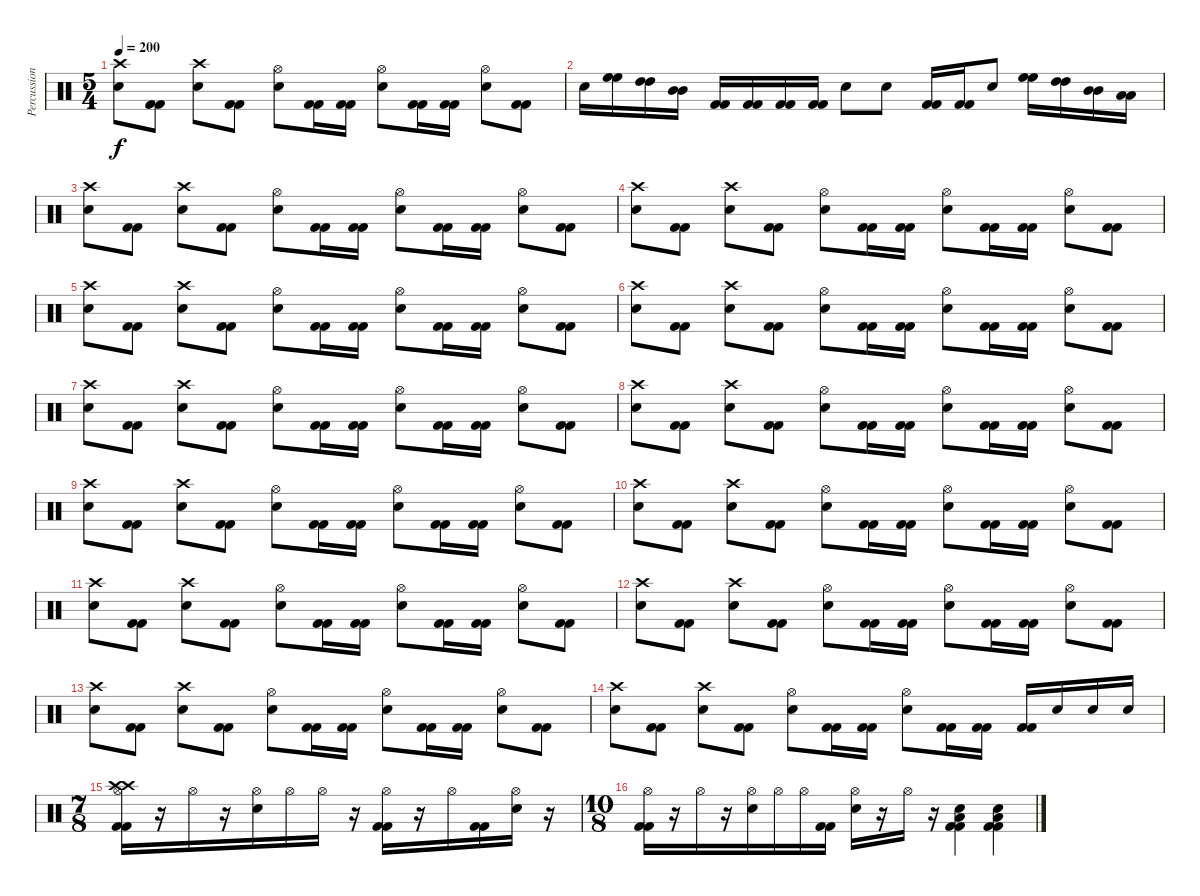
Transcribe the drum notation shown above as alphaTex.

\track ("Percussions" "Percussion") {instrument percussion}
\staff {score}
\articulation defaults
\ts (5 4)
\tempo 200
\clef neutral
\ks c
("Electric Snare (hit)" "Crash high (hit)").8{dy f} ("Kick (hit) 2" "Kick (hit) 2").8 ("Electric Snare (hit)" "Crash high (hit)").8 ("Kick (hit) 2" "Kick (hit) 2").8 ("Electric Snare (hit)" "Hi-Hat (open)").8 ("Kick (hit) 2" "Kick (hit) 2").16 ("Kick (hit) 2" "Kick (hit) 2").16 ("Electric Snare (hit)" "Hi-Hat (open)").8 ("Kick (hit) 2" "Kick (hit) 2").16 ("Kick (hit) 2" "Kick (hit) 2").16 ("Electric Snare (hit)" "Hi-Hat (open)").8 ("Kick (hit) 2" "Kick (hit) 2").8 |
"Electric Snare (hit)".16 ("High Floor Tom (hit)" "High Floor Tom (hit)").16 ("High Tom (hit)" "High Tom (hit)").16 ("Mid Tom (hit)" "Mid Tom (hit)").16 ("Kick (hit) 2" "Kick (hit) 2").16 ("Kick (hit) 2" "Kick (hit) 2").16 ("Kick (hit) 2" "Kick (hit) 2").16 ("Kick (hit) 2" "Kick (hit) 2").16 "Electric Snare (hit)".8 "Electric Snare (hit)".8 ("Kick (hit) 2" "Kick (hit) 2").16 ("Kick (hit) 2" "Kick (hit) 2").16 "Electric Snare (hit)".8 ("High Floor Tom (hit)" "High Floor Tom (hit)").16 ("High Tom (hit)" "High Tom (hit)").16 ("Mid Tom (hit)" "Mid Tom (hit)").16 ("Low Tom (hit)" "Low Tom (hit)").16 |
("Electric Snare (hit)" "Crash high (hit)").8 ("Kick (hit) 2" "Kick (hit) 2").8 ("Electric Snare (hit)" "Crash high (hit)").8 ("Kick (hit) 2" "Kick (hit) 2").8 ("Electric Snare (hit)" "Hi-Hat (open)").8 ("Kick (hit) 2" "Kick (hit) 2").16 ("Kick (hit) 2" "Kick (hit) 2").16 ("Electric Snare (hit)" "Hi-Hat (open)").8 ("Kick (hit) 2" "Kick (hit) 2").16 ("Kick (hit) 2" "Kick (hit) 2").16 ("Electric Snare (hit)" "Hi-Hat (open)").8 ("Kick (hit) 2" "Kick (hit) 2").8 |
("Electric Snare (hit)" "Crash high (hit)").8 ("Kick (hit) 2" "Kick (hit) 2").8 ("Electric Snare (hit)" "Crash high (hit)").8 ("Kick (hit) 2" "Kick (hit) 2").8 ("Electric Snare (hit)" "Hi-Hat (open)").8 ("Kick (hit) 2" "Kick (hit) 2").16 ("Kick (hit) 2" "Kick (hit) 2").16 ("Electric Snare (hit)" "Hi-Hat (open)").8 ("Kick (hit) 2" "Kick (hit) 2").16 ("Kick (hit) 2" "Kick (hit) 2").16 ("Electric Snare (hit)" "Hi-Hat (open)").8 ("Kick (hit) 2" "Kick (hit) 2").8 |
("Electric Snare (hit)" "Crash high (hit)").8 ("Kick (hit) 2" "Kick (hit) 2").8 ("Electric Snare (hit)" "Crash high (hit)").8 ("Kick (hit) 2" "Kick (hit) 2").8 ("Electric Snare (hit)" "Hi-Hat (open)").8 ("Kick (hit) 2" "Kick (hit) 2").16 ("Kick (hit) 2" "Kick (hit) 2").16 ("Electric Snare (hit)" "Hi-Hat (open)").8 ("Kick (hit) 2" "Kick (hit) 2").16 ("Kick (hit) 2" "Kick (hit) 2").16 ("Electric Snare (hit)" "Hi-Hat (open)").8 ("Kick (hit) 2" "Kick (hit) 2").8 |
("Electric Snare (hit)" "Crash high (hit)").8 ("Kick (hit) 2" "Kick (hit) 2").8 ("Electric Snare (hit)" "Crash high (hit)").8 ("Kick (hit) 2" "Kick (hit) 2").8 ("Electric Snare (hit)" "Hi-Hat (open)").8 ("Kick (hit) 2" "Kick (hit) 2").16 ("Kick (hit) 2" "Kick (hit) 2").16 ("Electric Snare (hit)" "Hi-Hat (open)").8 ("Kick (hit) 2" "Kick (hit) 2").16 ("Kick (hit) 2" "Kick (hit) 2").16 ("Electric Snare (hit)" "Hi-Hat (open)").8 ("Kick (hit) 2" "Kick (hit) 2").8 |
("Electric Snare (hit)" "Crash high (hit)").8 ("Kick (hit) 2" "Kick (hit) 2").8 ("Electric Snare (hit)" "Crash high (hit)").8 ("Kick (hit) 2" "Kick (hit) 2").8 ("Electric Snare (hit)" "Hi-Hat (open)").8 ("Kick (hit) 2" "Kick (hit) 2").16 ("Kick (hit) 2" "Kick (hit) 2").16 ("Electric Snare (hit)" "Hi-Hat (open)").8 ("Kick (hit) 2" "Kick (hit) 2").16 ("Kick (hit) 2" "Kick (hit) 2").16 ("Electric Snare (hit)" "Hi-Hat (open)").8 ("Kick (hit) 2" "Kick (hit) 2").8 |
("Electric Snare (hit)" "Crash high (hit)").8 ("Kick (hit) 2" "Kick (hit) 2").8 ("Electric Snare (hit)" "Crash high (hit)").8 ("Kick (hit) 2" "Kick (hit) 2").8 ("Electric Snare (hit)" "Hi-Hat (open)").8 ("Kick (hit) 2" "Kick (hit) 2").16 ("Kick (hit) 2" "Kick (hit) 2").16 ("Electric Snare (hit)" "Hi-Hat (open)").8 ("Kick (hit) 2" "Kick (hit) 2").16 ("Kick (hit) 2" "Kick (hit) 2").16 ("Electric Snare (hit)" "Hi-Hat (open)").8 ("Kick (hit) 2" "Kick (hit) 2").8 |
("Electric Snare (hit)" "Crash high (hit)").8 ("Kick (hit) 2" "Kick (hit) 2").8 ("Electric Snare (hit)" "Crash high (hit)").8 ("Kick (hit) 2" "Kick (hit) 2").8 ("Electric Snare (hit)" "Hi-Hat (open)").8 ("Kick (hit) 2" "Kick (hit) 2").16 ("Kick (hit) 2" "Kick (hit) 2").16 ("Electric Snare (hit)" "Hi-Hat (open)").8 ("Kick (hit) 2" "Kick (hit) 2").16 ("Kick (hit) 2" "Kick (hit) 2").16 ("Electric Snare (hit)" "Hi-Hat (open)").8 ("Kick (hit) 2" "Kick (hit) 2").8 |
("Electric Snare (hit)" "Crash high (hit)").8 ("Kick (hit) 2" "Kick (hit) 2").8 ("Electric Snare (hit)" "Crash high (hit)").8 ("Kick (hit) 2" "Kick (hit) 2").8 ("Electric Snare (hit)" "Hi-Hat (open)").8 ("Kick (hit) 2" "Kick (hit) 2").16 ("Kick (hit) 2" "Kick (hit) 2").16 ("Electric Snare (hit)" "Hi-Hat (open)").8 ("Kick (hit) 2" "Kick (hit) 2").16 ("Kick (hit) 2" "Kick (hit) 2").16 ("Electric Snare (hit)" "Hi-Hat (open)").8 ("Kick (hit) 2" "Kick (hit) 2").8 |
("Electric Snare (hit)" "Crash high (hit)").8 ("Kick (hit) 2" "Kick (hit) 2").8 ("Electric Snare (hit)" "Crash high (hit)").8 ("Kick (hit) 2" "Kick (hit) 2").8 ("Electric Snare (hit)" "Hi-Hat (open)").8 ("Kick (hit) 2" "Kick (hit) 2").16 ("Kick (hit) 2" "Kick (hit) 2").16 ("Electric Snare (hit)" "Hi-Hat (open)").8 ("Kick (hit) 2" "Kick (hit) 2").16 ("Kick (hit) 2" "Kick (hit) 2").16 ("Electric Snare (hit)" "Hi-Hat (open)").8 ("Kick (hit) 2" "Kick (hit) 2").8 |
("Electric Snare (hit)" "Crash high (hit)").8 ("Kick (hit) 2" "Kick (hit) 2").8 ("Electric Snare (hit)" "Crash high (hit)").8 ("Kick (hit) 2" "Kick (hit) 2").8 ("Electric Snare (hit)" "Hi-Hat (open)").8 ("Kick (hit) 2" "Kick (hit) 2").16 ("Kick (hit) 2" "Kick (hit) 2").16 ("Electric Snare (hit)" "Hi-Hat (open)").8 ("Kick (hit) 2" "Kick (hit) 2").16 ("Kick (hit) 2" "Kick (hit) 2").16 ("Electric Snare (hit)" "Hi-Hat (open)").8 ("Kick (hit) 2" "Kick (hit) 2").8 |
("Electric Snare (hit)" "Crash high (hit)").8 ("Kick (hit) 2" "Kick (hit) 2").8 ("Electric Snare (hit)" "Crash high (hit)").8 ("Kick (hit) 2" "Kick (hit) 2").8 ("Electric Snare (hit)" "Hi-Hat (open)").8 ("Kick (hit) 2" "Kick (hit) 2").16 ("Kick (hit) 2" "Kick (hit) 2").16 ("Electric Snare (hit)" "Hi-Hat (open)").8 ("Kick (hit) 2" "Kick (hit) 2").16 ("Kick (hit) 2" "Kick (hit) 2").16 ("Electric Snare (hit)" "Hi-Hat (open)").8 ("Kick (hit) 2" "Kick (hit) 2").8 |
("Electric Snare (hit)" "Crash high (hit)").8 ("Kick (hit) 2" "Kick (hit) 2").8 ("Electric Snare (hit)" "Crash high (hit)").8 ("Kick (hit) 2" "Kick (hit) 2").8 ("Electric Snare (hit)" "Hi-Hat (open)").8 ("Kick (hit) 2" "Kick (hit) 2").16 ("Kick (hit) 2" "Kick (hit) 2").16 ("Electric Snare (hit)" "Hi-Hat (open)").8 ("Kick (hit) 2" "Kick (hit) 2").16 ("Kick (hit) 2" "Kick (hit) 2").16 ("Kick (hit) 2" "Kick (hit) 2").16 "Electric Snare (hit)".16 "Electric Snare (hit)".16 "Electric Snare (hit)".16 |
\ts (7 8)
("Hi-Hat (open)" "Crash high (hit)" "Crash high (hit)" "Kick (hit) 2" "Kick (hit) 2").16 r.16 "Hi-Hat (open)".16 r.16 ("Hi-Hat (open)" "Electric Snare (hit)").16 "Hi-Hat (open)".16 "Hi-Hat (open)".16 r.16 ("Hi-Hat (open)" "Kick (hit) 2" "Kick (hit) 2").16 r.16 "Hi-Hat (open)".16 ("Kick (hit) 2" "Kick (hit) 2").16 ("Hi-Hat (open)" "Electric Snare (hit)").16 r.16 |
\ts (10 8)
("Hi-Hat (open)" "Kick (hit) 2" "Kick (hit) 2").16 r.16 "Hi-Hat (open)".16 r.16 ("Hi-Hat (open)" "Electric Snare (hit)").16 "Hi-Hat (open)".16 "Hi-Hat (open)".16 ("Kick (hit) 2" "Kick (hit) 2").16 ("Hi-Hat (open)" "Electric Snare (hit)").16 r.16 "Hi-Hat (open)".16 r.16 ("Electric Snare (hit)" "Low Floor Tom (hit)" "Kick (hit) 2" "Kick (hit) 2").4 ("Electric Snare (hit)" "Low Floor Tom (hit)" "Kick (hit) 2" "Kick (hit) 2").4
